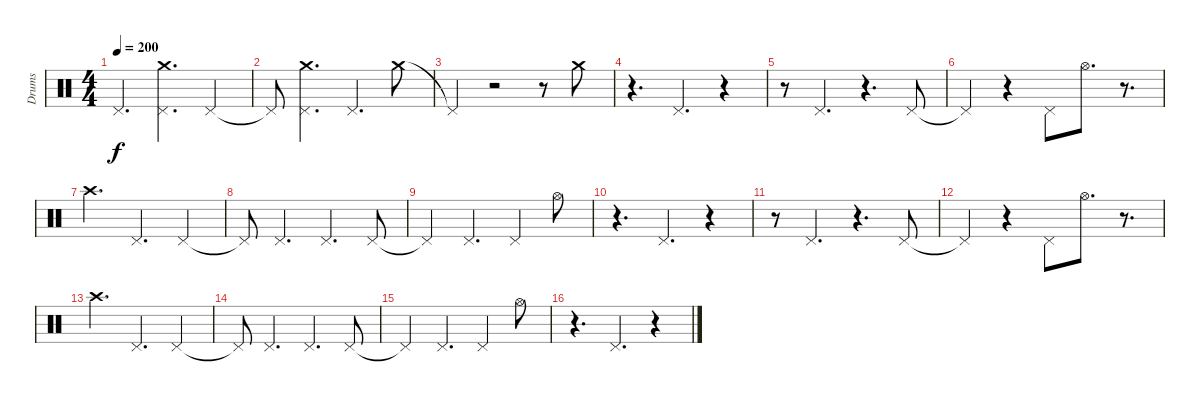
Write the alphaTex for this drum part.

\track ("Drums" "Drums") {instrument percussion}
\staff {score}
\articulation defaults
\ts (4 4)
\tempo 200
\clef neutral
\ks c "Pedal Hi-Hat (hit)".4{d dy f}
("Pedal Hi-Hat (hit)" "Crash medium (hit)").4{d} "Pedal Hi-Hat (hit)".4 |
"Pedal Hi-Hat (hit)"{t}.8 ("Pedal Hi-Hat (hit)" "Crash medium (hit)").4{d} "Pedal Hi-Hat (hit)".4{d} "Crash medium (hit)".8 |
"Pedal Hi-Hat (hit)"{t}.4 r.2 r.8 "Crash medium (hit)".8 |
r.4{d} "Pedal Hi-Hat (hit)".4{d} r.4 |
r.8 "Pedal Hi-Hat (hit)".4{d} r.4{d} "Pedal Hi-Hat (hit)".8 |
"Pedal Hi-Hat (hit)"{t}.4 r.4 "Pedal Hi-Hat (hit)".8 "Hi-Hat (open)".8{d} r.8{d} |
"Crash high (hit)".4{d} "Pedal Hi-Hat (hit)".4{d} "Pedal Hi-Hat (hit)".4 |
"Pedal Hi-Hat (hit)"{t}.8 "Pedal Hi-Hat (hit)".4{d} "Pedal Hi-Hat (hit)".4{d} "Pedal Hi-Hat (hit)".8 |
"Pedal Hi-Hat (hit)"{t}.4 "Pedal Hi-Hat (hit)".4{d} "Pedal Hi-Hat (hit)".4 "Hi-Hat (open)".8 |
r.4{d} "Pedal Hi-Hat (hit)".4{d} r.4 |
r.8 "Pedal Hi-Hat (hit)".4{d} r.4{d} "Pedal Hi-Hat (hit)".8 |
"Pedal Hi-Hat (hit)"{t}.4 r.4 "Pedal Hi-Hat (hit)".8 "Hi-Hat (open)".8{d} r.8{d} |
"Crash high (hit)".4{d} "Pedal Hi-Hat (hit)".4{d} "Pedal Hi-Hat (hit)".4 |
"Pedal Hi-Hat (hit)"{t}.8 "Pedal Hi-Hat (hit)".4{d} "Pedal Hi-Hat (hit)".4{d} "Pedal Hi-Hat (hit)".8 |
"Pedal Hi-Hat (hit)"{t}.4 "Pedal Hi-Hat (hit)".4{d} "Pedal Hi-Hat (hit)".4 "Hi-Hat (open)".8 |
r.4{d} "Pedal Hi-Hat (hit)".4{d} r.4
